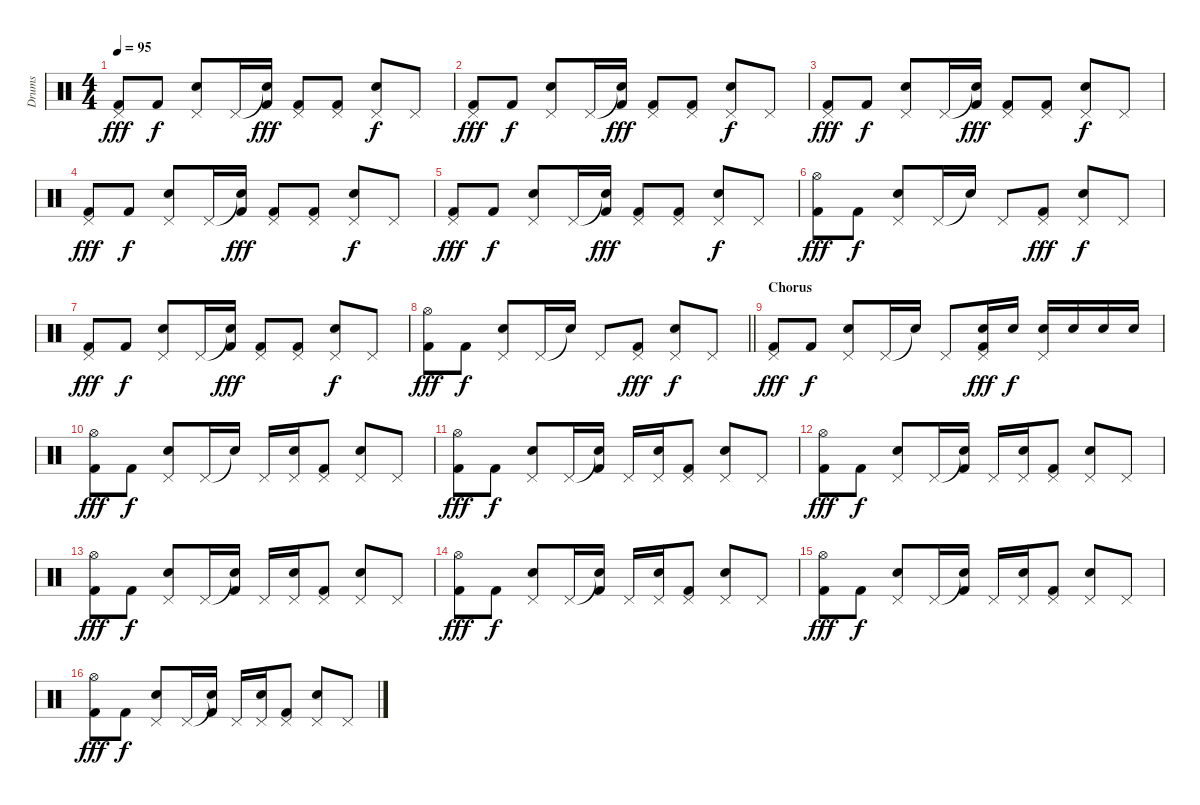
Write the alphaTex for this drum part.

\track ("Drums" "Drums") {instrument percussion}
\staff {score}
\articulation defaults
\ts (4 4)
\tempo 95
\clef neutral
\ks c
("Pedal Hi-Hat (hit)" "Kick (hit) 2").8{dy fff} "Kick (hit) 2".8{dy f} ("Pedal Hi-Hat (hit)" "Snare (hit) 2").8 "Pedal Hi-Hat (hit)".16 ("Snare (hit)"{t} "Kick (hit) 2").16{dy fff} ("Pedal Hi-Hat (hit)" "Kick (hit) 2").8 ("Pedal Hi-Hat (hit)" "Kick (hit) 2").8 ("Pedal Hi-Hat (hit)" "Snare (hit) 2").8{dy f} "Pedal Hi-Hat (hit)".8 |
("Pedal Hi-Hat (hit)" "Kick (hit) 2").8{dy fff} "Kick (hit) 2".8{dy f} ("Pedal Hi-Hat (hit)" "Snare (hit) 2").8 "Pedal Hi-Hat (hit)".16 ("Snare (hit)"{t} "Kick (hit) 2").16{dy fff} ("Pedal Hi-Hat (hit)" "Kick (hit) 2").8 ("Pedal Hi-Hat (hit)" "Kick (hit) 2").8 ("Pedal Hi-Hat (hit)" "Snare (hit) 2").8{dy f} "Pedal Hi-Hat (hit)".8 |
("Pedal Hi-Hat (hit)" "Kick (hit) 2").8{dy fff} "Kick (hit) 2".8{dy f} ("Pedal Hi-Hat (hit)" "Snare (hit) 2").8 "Pedal Hi-Hat (hit)".16 ("Snare (hit)"{t} "Kick (hit) 2").16{dy fff} ("Pedal Hi-Hat (hit)" "Kick (hit) 2").8 ("Pedal Hi-Hat (hit)" "Kick (hit) 2").8 ("Pedal Hi-Hat (hit)" "Snare (hit) 2").8{dy f} "Pedal Hi-Hat (hit)".8 |
("Pedal Hi-Hat (hit)" "Kick (hit) 2").8{dy fff} "Kick (hit) 2".8{dy f} ("Pedal Hi-Hat (hit)" "Snare (hit) 2").8 "Pedal Hi-Hat (hit)".16 ("Snare (hit)"{t} "Kick (hit) 2").16{dy fff} ("Pedal Hi-Hat (hit)" "Kick (hit) 2").8 ("Pedal Hi-Hat (hit)" "Kick (hit) 2").8 ("Pedal Hi-Hat (hit)" "Snare (hit) 2").8{dy f} "Pedal Hi-Hat (hit)".8 |
("Pedal Hi-Hat (hit)" "Kick (hit) 2").8{dy fff} "Kick (hit) 2".8{dy f} ("Pedal Hi-Hat (hit)" "Snare (hit) 2").8 "Pedal Hi-Hat (hit)".16 ("Snare (hit)"{t} "Kick (hit) 2").16{dy fff} ("Pedal Hi-Hat (hit)" "Kick (hit) 2").8 ("Pedal Hi-Hat (hit)" "Kick (hit) 2").8 ("Pedal Hi-Hat (hit)" "Snare (hit) 2").8{dy f} "Pedal Hi-Hat (hit)".8 |
("Hi-Hat (open)" "Kick (hit) 2").8{dy fff} "Kick (hit) 2".8{dy f} ("Pedal Hi-Hat (hit)" "Snare (hit) 2").8 "Pedal Hi-Hat (hit)".16 "Snare (hit)"{t}.16 "Pedal Hi-Hat (hit)".8 ("Pedal Hi-Hat (hit)" "Kick (hit) 2").8{dy fff} ("Pedal Hi-Hat (hit)" "Snare (hit) 2").8{dy f} "Pedal Hi-Hat (hit)".8 |
("Pedal Hi-Hat (hit)" "Kick (hit) 2").8{dy fff} "Kick (hit) 2".8{dy f} ("Pedal Hi-Hat (hit)" "Snare (hit) 2").8 "Pedal Hi-Hat (hit)".16 ("Snare (hit)"{t} "Kick (hit) 2").16{dy fff} ("Pedal Hi-Hat (hit)" "Kick (hit) 2").8 ("Pedal Hi-Hat (hit)" "Kick (hit) 2").8 ("Pedal Hi-Hat (hit)" "Snare (hit) 2").8{dy f} "Pedal Hi-Hat (hit)".8 |
\barLineRight lightlight
("Hi-Hat (open)" "Kick (hit) 2").8{dy fff} "Kick (hit) 2".8{dy f} ("Pedal Hi-Hat (hit)" "Snare (hit) 2").8 "Pedal Hi-Hat (hit)".16 "Snare (hit)"{t}.16 "Pedal Hi-Hat (hit)".8 ("Pedal Hi-Hat (hit)" "Kick (hit) 2").8{dy fff} ("Pedal Hi-Hat (hit)" "Snare (hit) 2").8{dy f} "Pedal Hi-Hat (hit)".8 |
\section ("" "Chorus")
("Pedal Hi-Hat (hit)" "Kick (hit) 2").8{dy fff} "Kick (hit) 2".8{dy f} ("Pedal Hi-Hat (hit)" "Snare (hit) 2").8 "Pedal Hi-Hat (hit)".16 "Snare (hit)"{t}.16 "Pedal Hi-Hat (hit)".8 ("Pedal Hi-Hat (hit)" "Snare (hit) 2" "Kick (hit) 2").16{dy fff} "Snare (hit) 2".16{dy f} ("Pedal Hi-Hat (hit)" "Snare (hit) 2").16 "Snare (hit) 2".16 "Snare (hit) 2".16 "Snare (hit) 2".16 |
("Hi-Hat (open)" "Kick (hit) 2").8{dy fff} "Kick (hit) 2".8{dy f} ("Pedal Hi-Hat (hit)" "Snare (hit) 2").8 "Pedal Hi-Hat (hit)".16 "Snare (hit)"{t}.16 "Pedal Hi-Hat (hit)".16 ("Pedal Hi-Hat (hit)" "Snare (hit) 2").16 ("Pedal Hi-Hat (hit)" "Kick (hit) 2").8 ("Pedal Hi-Hat (hit)" "Snare (hit) 2").8 "Pedal Hi-Hat (hit)".8 |
("Hi-Hat (open)" "Kick (hit) 2").8{dy fff} "Kick (hit) 2".8{dy f} ("Pedal Hi-Hat (hit)" "Snare (hit) 2").8 "Pedal Hi-Hat (hit)".16 ("Snare (hit)"{t} "Kick (hit) 2").16 "Pedal Hi-Hat (hit)".16 ("Pedal Hi-Hat (hit)" "Snare (hit) 2").16 ("Pedal Hi-Hat (hit)" "Kick (hit) 2").8 ("Pedal Hi-Hat (hit)" "Snare (hit) 2").8 "Pedal Hi-Hat (hit)".8 |
("Hi-Hat (open)" "Kick (hit) 2").8{dy fff} "Kick (hit) 2".8{dy f} ("Pedal Hi-Hat (hit)" "Snare (hit) 2").8 "Pedal Hi-Hat (hit)".16 ("Snare (hit)"{t} "Kick (hit) 2").16 "Pedal Hi-Hat (hit)".16 ("Pedal Hi-Hat (hit)" "Snare (hit) 2").16 ("Pedal Hi-Hat (hit)" "Kick (hit) 2").8 ("Pedal Hi-Hat (hit)" "Snare (hit) 2").8 "Pedal Hi-Hat (hit)".8 |
("Hi-Hat (open)" "Kick (hit) 2").8{dy fff} "Kick (hit) 2".8{dy f} ("Pedal Hi-Hat (hit)" "Snare (hit) 2").8 "Pedal Hi-Hat (hit)".16 ("Snare (hit)"{t} "Kick (hit) 2").16 "Pedal Hi-Hat (hit)".16 ("Pedal Hi-Hat (hit)" "Snare (hit) 2").16 ("Pedal Hi-Hat (hit)" "Kick (hit) 2").8 ("Pedal Hi-Hat (hit)" "Snare (hit) 2").8 "Pedal Hi-Hat (hit)".8 |
("Hi-Hat (open)" "Kick (hit) 2").8{dy fff} "Kick (hit) 2".8{dy f} ("Pedal Hi-Hat (hit)" "Snare (hit) 2").8 "Pedal Hi-Hat (hit)".16 ("Snare (hit)"{t} "Kick (hit) 2").16 "Pedal Hi-Hat (hit)".16 ("Pedal Hi-Hat (hit)" "Snare (hit) 2").16 ("Pedal Hi-Hat (hit)" "Kick (hit) 2").8 ("Pedal Hi-Hat (hit)" "Snare (hit) 2").8 "Pedal Hi-Hat (hit)".8 |
("Hi-Hat (open)" "Kick (hit) 2").8{dy fff} "Kick (hit) 2".8{dy f} ("Pedal Hi-Hat (hit)" "Snare (hit) 2").8 "Pedal Hi-Hat (hit)".16 ("Snare (hit)"{t} "Kick (hit) 2").16 "Pedal Hi-Hat (hit)".16 ("Pedal Hi-Hat (hit)" "Snare (hit) 2").16 ("Pedal Hi-Hat (hit)" "Kick (hit) 2").8 ("Pedal Hi-Hat (hit)" "Snare (hit) 2").8 "Pedal Hi-Hat (hit)".8 |
("Hi-Hat (open)" "Kick (hit) 2").8{dy fff} "Kick (hit) 2".8{dy f} ("Pedal Hi-Hat (hit)" "Snare (hit) 2").8 "Pedal Hi-Hat (hit)".16 ("Snare (hit)"{t} "Kick (hit) 2").16 "Pedal Hi-Hat (hit)".16 ("Pedal Hi-Hat (hit)" "Snare (hit) 2").16 ("Pedal Hi-Hat (hit)" "Kick (hit) 2").8 ("Pedal Hi-Hat (hit)" "Snare (hit) 2").8 "Pedal Hi-Hat (hit)".8
